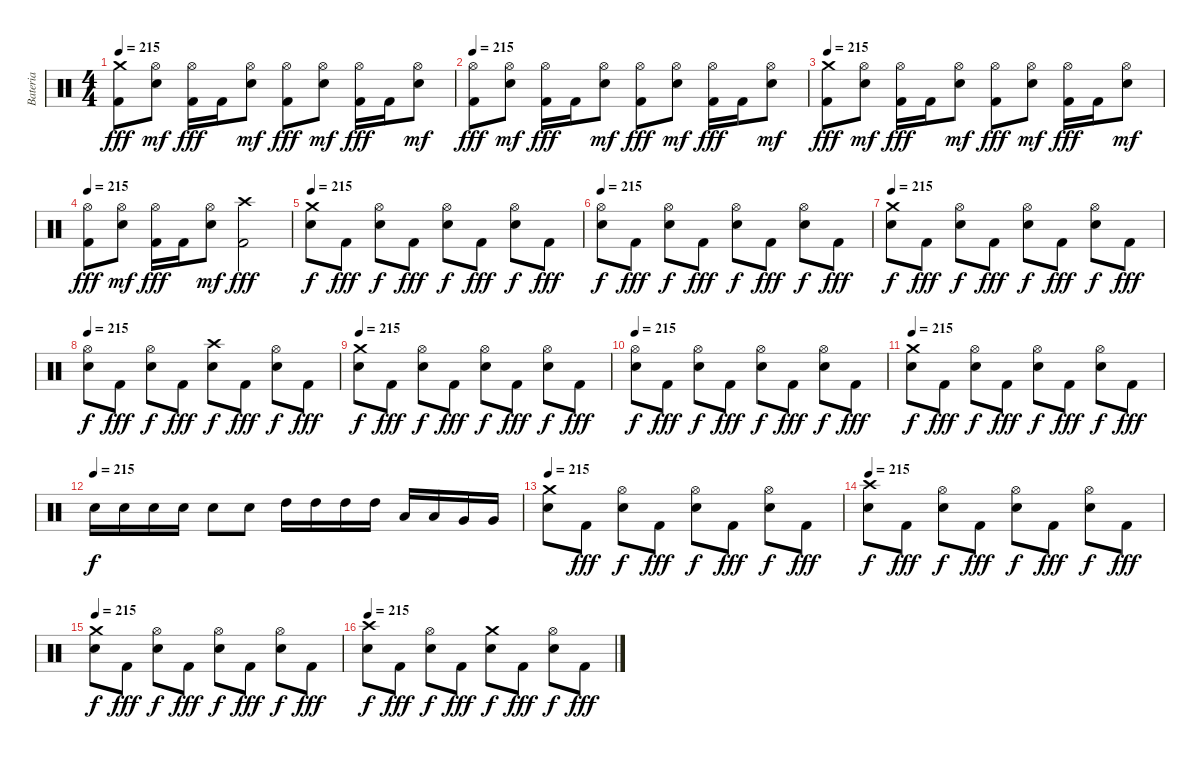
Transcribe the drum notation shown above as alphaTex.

\track ("Bateria" "Bateria") {instrument percussion}
\staff {score}
\articulation defaults
\ts (4 4)
\tempo 215
\clef neutral
\ks c
("Crash medium (hit)" "Kick (hit) 2").8{dy fff} ("Hi-Hat (open)" "Electric Snare (hit)").8{dy mf} ("Hi-Hat (open)" "Kick (hit) 2").16{dy fff} "Kick (hit) 2".16 ("Hi-Hat (open)" "Electric Snare (hit)").8{dy mf} ("Hi-Hat (open)" "Kick (hit) 2").8{dy fff} ("Hi-Hat (open)" "Electric Snare (hit)").8{dy mf} ("Hi-Hat (open)" "Kick (hit) 2").16{dy fff} "Kick (hit) 2".16 ("Hi-Hat (open)" "Electric Snare (hit)").8{dy mf} |
\tempo 215
("Hi-Hat (open)" "Kick (hit) 2").8{dy fff} ("Hi-Hat (open)" "Electric Snare (hit)").8{dy mf} ("Hi-Hat (open)" "Kick (hit) 2").16{dy fff} "Kick (hit) 2".16 ("Hi-Hat (open)" "Electric Snare (hit)").8{dy mf} ("Hi-Hat (open)" "Kick (hit) 2").8{dy fff} ("Hi-Hat (open)" "Electric Snare (hit)").8{dy mf} ("Hi-Hat (open)" "Kick (hit) 2").16{dy fff} "Kick (hit) 2".16 ("Hi-Hat (open)" "Electric Snare (hit)").8{dy mf} |
\tempo 215
("Crash medium (hit)" "Kick (hit) 2").8{dy fff} ("Hi-Hat (open)" "Electric Snare (hit)").8{dy mf} ("Hi-Hat (open)" "Kick (hit) 2").16{dy fff} "Kick (hit) 2".16 ("Hi-Hat (open)" "Electric Snare (hit)").8{dy mf} ("Hi-Hat (open)" "Kick (hit) 2").8{dy fff} ("Hi-Hat (open)" "Electric Snare (hit)").8{dy mf} ("Hi-Hat (open)" "Kick (hit) 2").16{dy fff} "Kick (hit) 2".16 ("Hi-Hat (open)" "Electric Snare (hit)").8{dy mf} |
\tempo 215
("Hi-Hat (open)" "Kick (hit) 2").8{dy fff} ("Hi-Hat (open)" "Electric Snare (hit)").8{dy mf} ("Hi-Hat (open)" "Kick (hit) 2").16{dy fff} "Kick (hit) 2".16 ("Hi-Hat (open)" "Electric Snare (hit)").8{dy mf} ("Crash high (hit)" "Kick (hit) 2").2{dy fff} |
\tempo 215
("Crash medium (hit)" "Electric Snare (hit)").8{dy f} "Kick (hit) 2".8{dy fff} ("Hi-Hat (open)" "Electric Snare (hit)").8{dy f} "Kick (hit) 2".8{dy fff} ("Hi-Hat (open)" "Electric Snare (hit)").8{dy f} "Kick (hit) 2".8{dy fff} ("Hi-Hat (open)" "Electric Snare (hit)").8{dy f} "Kick (hit) 2".8{dy fff} |
\tempo 215
("Hi-Hat (open)" "Electric Snare (hit)").8{dy f} "Kick (hit) 2".8{dy fff} ("Hi-Hat (open)" "Electric Snare (hit)").8{dy f} "Kick (hit) 2".8{dy fff} ("Hi-Hat (open)" "Electric Snare (hit)").8{dy f} "Kick (hit) 2".8{dy fff} ("Hi-Hat (open)" "Electric Snare (hit)").8{dy f} "Kick (hit) 2".8{dy fff} |
\tempo 215
("Crash medium (hit)" "Electric Snare (hit)").8{dy f} "Kick (hit) 2".8{dy fff} ("Hi-Hat (open)" "Electric Snare (hit)").8{dy f} "Kick (hit) 2".8{dy fff} ("Hi-Hat (open)" "Electric Snare (hit)").8{dy f} "Kick (hit) 2".8{dy fff} ("Hi-Hat (open)" "Electric Snare (hit)").8{dy f} "Kick (hit) 2".8{dy fff} |
\tempo 215
("Hi-Hat (open)" "Electric Snare (hit)").8{dy f} "Kick (hit) 2".8{dy fff} ("Hi-Hat (open)" "Electric Snare (hit)").8{dy f} "Kick (hit) 2".8{dy fff} ("Crash high (hit)" "Electric Snare (hit)").8{dy f} "Kick (hit) 2".8{dy fff} ("Hi-Hat (open)" "Electric Snare (hit)").8{dy f} "Kick (hit) 2".8{dy fff} |
\tempo 215
("Crash medium (hit)" "Electric Snare (hit)").8{dy f} "Kick (hit) 2".8{dy fff} ("Hi-Hat (open)" "Electric Snare (hit)").8{dy f} "Kick (hit) 2".8{dy fff} ("Hi-Hat (open)" "Electric Snare (hit)").8{dy f} "Kick (hit) 2".8{dy fff} ("Hi-Hat (open)" "Electric Snare (hit)").8{dy f} "Kick (hit) 2".8{dy fff} |
\tempo 215
("Hi-Hat (open)" "Electric Snare (hit)").8{dy f} "Kick (hit) 2".8{dy fff} ("Hi-Hat (open)" "Electric Snare (hit)").8{dy f} "Kick (hit) 2".8{dy fff} ("Hi-Hat (open)" "Electric Snare (hit)").8{dy f} "Kick (hit) 2".8{dy fff} ("Hi-Hat (open)" "Electric Snare (hit)").8{dy f} "Kick (hit) 2".8{dy fff} |
\tempo 215
("Crash medium (hit)" "Electric Snare (hit)").8{dy f} "Kick (hit) 2".8{dy fff} ("Hi-Hat (open)" "Electric Snare (hit)").8{dy f} "Kick (hit) 2".8{dy fff} ("Hi-Hat (open)" "Electric Snare (hit)").8{dy f} "Kick (hit) 2".8{dy fff} ("Hi-Hat (open)" "Electric Snare (hit)").8{dy f} "Kick (hit) 2".8{dy fff} |
\tempo (215)
"Electric Snare (hit)".16{dy f} "Electric Snare (hit)".16 "Electric Snare (hit)".16 "Electric Snare (hit)".16 "Electric Snare (hit)".8 "Electric Snare (hit)".8 "High Tom (hit)".16 "High Tom (hit)".16 "High Tom (hit)".16 "High Tom (hit)".16 "Low Tom (hit)".16 "Low Tom (hit)".16 "Very Low Tom (hit)".16 "Very Low Tom (hit)".16 |
\tempo 215
("Crash medium (hit)" "Electric Snare (hit)").8 "Kick (hit) 2".8{dy fff} ("Hi-Hat (open)" "Electric Snare (hit)").8{dy f} "Kick (hit) 2".8{dy fff} ("Hi-Hat (open)" "Electric Snare (hit)").8{dy f} "Kick (hit) 2".8{dy fff} ("Hi-Hat (open)" "Electric Snare (hit)").8{dy f} "Kick (hit) 2".8{dy fff} |
\tempo 215
("Crash high (hit)" "Electric Snare (hit)").8{dy f} "Kick (hit) 2".8{dy fff} ("Hi-Hat (open)" "Electric Snare (hit)").8{dy f} "Kick (hit) 2".8{dy fff} ("Hi-Hat (open)" "Electric Snare (hit)").8{dy f} "Kick (hit) 2".8{dy fff} ("Hi-Hat (open)" "Electric Snare (hit)").8{dy f} "Kick (hit) 2".8{dy fff} |
\tempo 215
("Crash medium (hit)" "Electric Snare (hit)").8{dy f} "Kick (hit) 2".8{dy fff} ("Hi-Hat (open)" "Electric Snare (hit)").8{dy f} "Kick (hit) 2".8{dy fff} ("Hi-Hat (open)" "Electric Snare (hit)").8{dy f} "Kick (hit) 2".8{dy fff} ("Hi-Hat (open)" "Electric Snare (hit)").8{dy f} "Kick (hit) 2".8{dy fff} |
\tempo 215
("Crash high (hit)" "Electric Snare (hit)").8{dy f} "Kick (hit) 2".8{dy fff} ("Hi-Hat (open)" "Electric Snare (hit)").8{dy f} "Kick (hit) 2".8{dy fff} ("Crash medium (hit)" "Electric Snare (hit)").8{dy f} "Kick (hit) 2".8{dy fff} ("Hi-Hat (open)" "Electric Snare (hit)").8{dy f} "Kick (hit) 2".8{dy fff}
